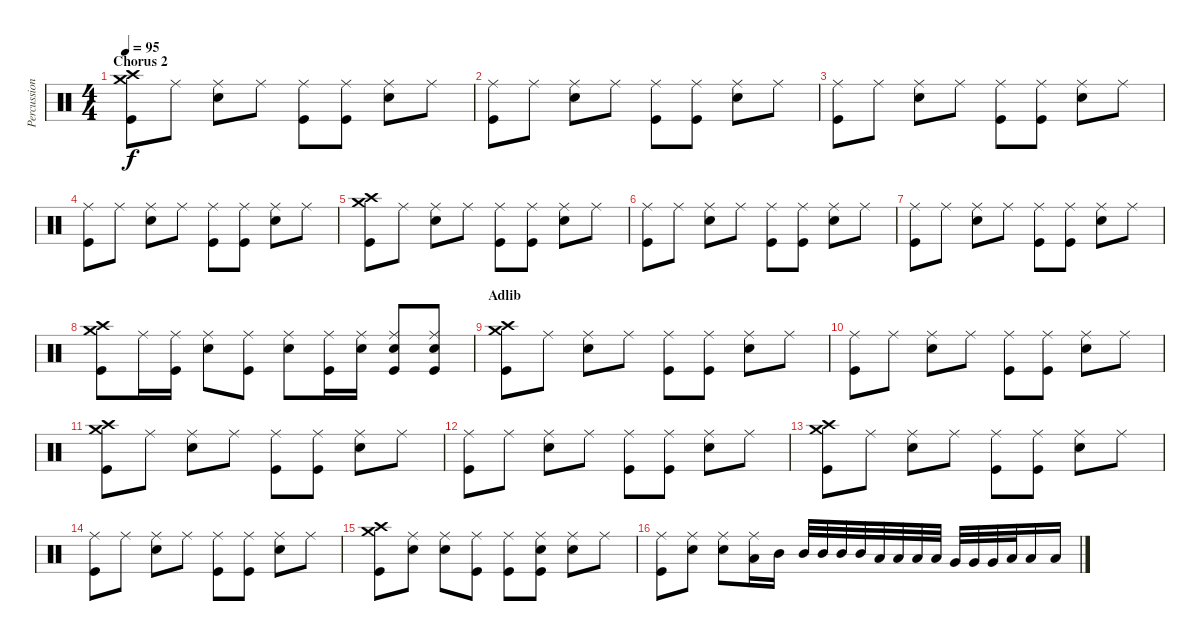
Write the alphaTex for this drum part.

\track ("Percussion" "Percussion") {instrument percussion}
\staff {score}
\articulation defaults
\ts (4 4)
\section ("" "Chorus 2")
\tempo 95
\clef neutral
\ks c
("Crash high (hit)" "Crash medium (hit)" "Kick (hit)").8{dy f} "Ride (middle)".8 ("Ride (middle)" "Electric Snare (hit)").8 "Ride (middle)".8 ("Ride (middle)" "Kick (hit)").8 ("Ride (middle)" "Kick (hit)").8 ("Ride (middle)" "Electric Snare (hit)").8 "Ride (middle)".8 |
("Ride (middle)" "Kick (hit)").8 "Ride (middle)".8 ("Ride (middle)" "Electric Snare (hit)").8 "Ride (middle)".8 ("Ride (middle)" "Kick (hit)").8 ("Ride (middle)" "Kick (hit)").8 ("Ride (middle)" "Electric Snare (hit)").8 "Ride (middle)".8 |
("Ride (middle)" "Kick (hit)").8 "Ride (middle)".8 ("Ride (middle)" "Electric Snare (hit)").8 "Ride (middle)".8 ("Ride (middle)" "Kick (hit)").8 ("Ride (middle)" "Kick (hit)").8 ("Ride (middle)" "Electric Snare (hit)").8 "Ride (middle)".8 |
("Ride (middle)" "Kick (hit)").8 "Ride (middle)".8 ("Ride (middle)" "Electric Snare (hit)").8 "Ride (middle)".8 ("Ride (middle)" "Kick (hit)").8 ("Ride (middle)" "Kick (hit)").8 ("Ride (middle)" "Electric Snare (hit)").8 "Ride (middle)".8 |
("Crash high (hit)" "Crash medium (hit)" "Kick (hit)").8 "Ride (middle)".8 ("Ride (middle)" "Electric Snare (hit)").8 "Ride (middle)".8 ("Ride (middle)" "Kick (hit)").8 ("Ride (middle)" "Kick (hit)").8 ("Ride (middle)" "Electric Snare (hit)").8 "Ride (middle)".8 |
("Ride (middle)" "Kick (hit)").8 "Ride (middle)".8 ("Ride (middle)" "Electric Snare (hit)").8 "Ride (middle)".8 ("Ride (middle)" "Kick (hit)").8 ("Ride (middle)" "Kick (hit)").8 ("Ride (middle)" "Electric Snare (hit)").8 "Ride (middle)".8 |
("Ride (middle)" "Kick (hit)").8 "Ride (middle)".8 ("Ride (middle)" "Electric Snare (hit)").8 "Ride (middle)".8 ("Ride (middle)" "Kick (hit)").8 ("Ride (middle)" "Kick (hit)").8 ("Ride (middle)" "Electric Snare (hit)").8 "Ride (middle)".8 |
("Crash high (hit)" "Crash medium (hit)" "Kick (hit)").8 "Ride (middle)".16 ("Ride (middle)" "Kick (hit)").16 ("Ride (middle)" "Electric Snare (hit)").8 ("Ride (middle)" "Kick (hit)").8 ("Ride (middle)" "Electric Snare (hit)").8 ("Ride (middle)" "Kick (hit)").16 ("Ride (middle)" "Electric Snare (hit)").16 ("Ride (middle)" "Electric Snare (hit)" "Kick (hit)").8 ("Ride (middle)" "Electric Snare (hit)" "Kick (hit)").8 |
\section ("" "Adlib")
("Crash high (hit)" "Crash medium (hit)" "Kick (hit)").8 "Ride (middle)".8 ("Ride (middle)" "Electric Snare (hit)").8 "Ride (middle)".8 ("Ride (middle)" "Kick (hit)").8 ("Ride (middle)" "Kick (hit)").8 ("Ride (middle)" "Electric Snare (hit)").8 "Ride (middle)".8 |
("Ride (middle)" "Kick (hit)").8 "Ride (middle)".8 ("Ride (middle)" "Electric Snare (hit)").8 "Ride (middle)".8 ("Ride (middle)" "Kick (hit)").8 ("Ride (middle)" "Kick (hit)").8 ("Ride (middle)" "Electric Snare (hit)").8 "Ride (middle)".8 |
("Crash high (hit)" "Crash medium (hit)" "Kick (hit)").8 "Ride (middle)".8 ("Ride (middle)" "Electric Snare (hit)").8 "Ride (middle)".8 ("Ride (middle)" "Kick (hit)").8 ("Ride (middle)" "Kick (hit)").8 ("Ride (middle)" "Electric Snare (hit)").8 "Ride (middle)".8 |
("Ride (middle)" "Kick (hit)").8 "Ride (middle)".8 ("Ride (middle)" "Electric Snare (hit)").8 "Ride (middle)".8 ("Ride (middle)" "Kick (hit)").8 ("Ride (middle)" "Kick (hit)").8 ("Ride (middle)" "Electric Snare (hit)").8 "Ride (middle)".8 |
("Crash high (hit)" "Crash medium (hit)" "Kick (hit)").8 "Ride (middle)".8 ("Ride (middle)" "Electric Snare (hit)").8 "Ride (middle)".8 ("Ride (middle)" "Kick (hit)").8 ("Ride (middle)" "Kick (hit)").8 ("Ride (middle)" "Electric Snare (hit)").8 "Ride (middle)".8 |
("Ride (middle)" "Kick (hit)").8 "Ride (middle)".8 ("Ride (middle)" "Electric Snare (hit)").8 "Ride (middle)".8 ("Ride (middle)" "Kick (hit)").8 ("Ride (middle)" "Kick (hit)").8 ("Ride (middle)" "Electric Snare (hit)").8 "Ride (middle)".8 |
("Crash high (hit)" "Crash medium (hit)" "Kick (hit)").8 ("Ride (middle)" "Electric Snare (hit)").8 ("Ride (middle)" "Electric Snare (hit)").8 ("Ride (middle)" "Kick (hit)").8 ("Ride (middle)" "Kick (hit)").8 ("Ride (middle)" "Electric Snare (hit)" "Kick (hit)").8 ("Ride (middle)" "Electric Snare (hit)").8 "Ride (middle)".8 |
("Ride (middle)" "Kick (hit)").8 ("Ride (middle)" "Electric Snare (hit)").8 ("Ride (middle)" "Electric Snare (hit)").8 ("Ride (middle)" "Low Tom (hit)").16 "Mid Tom (hit)".16 "Mid Tom (hit)".32 "Mid Tom (hit)".32 "Mid Tom (hit)".32 "Mid Tom (hit)".32 "Low Tom (hit)".32 "Low Tom (hit)".32 "Low Tom (hit)".32 "Low Tom (hit)".32 "Very Low Tom (hit)".32 "Very Low Tom (hit)".32 "Very Low Tom (hit)".32 "Low Floor Tom (hit)".32 "Low Floor Tom (hit)".16 "Low Floor Tom (hit)".16
